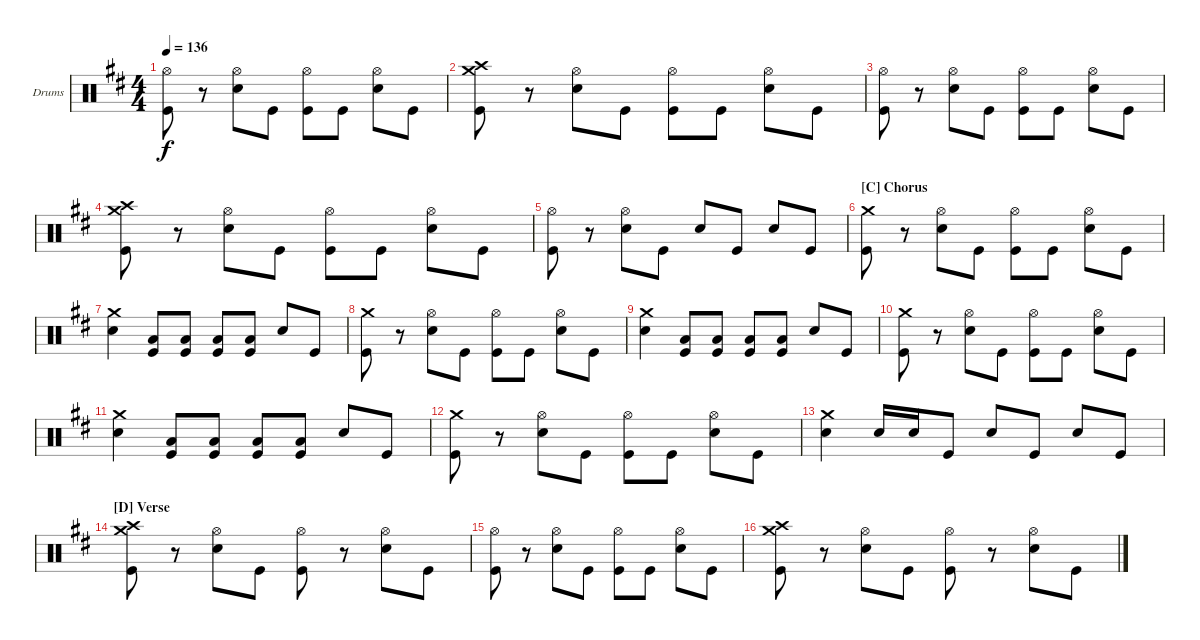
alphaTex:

\defaultSystemsLayout 4
\bracketExtendMode groupsimilarinstruments
\firstSystemTrackNameOrientation horizontal
\otherSystemsTrackNameOrientation horizontal
\track ("Drumkit" "Drums") {instrument percussion}
\staff {score}
\articulation defaults
\ts (4 4)
\tempo 136
\clef neutral
\scale
1.05044
\ks d
("Hi-Hat (open)" "Kick (hit)").8{dy f} r.8 ("Hi-Hat (open)" "Snare (hit) 2").8 "Kick (hit)".8 ("Hi-Hat (open)" "Kick (hit)").8 "Kick (hit)".8 ("Hi-Hat (open)" "Snare (hit) 2").8 "Kick (hit)".8 |
\scale
0.949559 ("Crash high (hit)" "Crash medium (hit)" "Kick (hit)").8 r.8 ("Hi-Hat (open)" "Snare (hit) 2").8 "Kick (hit)".8 ("Hi-Hat (open)" "Kick (hit)").8 "Kick (hit)".8 ("Hi-Hat (open)" "Snare (hit) 2").8 "Kick (hit)".8 |
\scale
1.05044 ("Hi-Hat (open)" "Kick (hit)").8 r.8 ("Hi-Hat (open)" "Snare (hit) 2").8 "Kick (hit)".8 ("Hi-Hat (open)" "Kick (hit)").8 "Kick (hit)".8 ("Hi-Hat (open)" "Snare (hit) 2").8 "Kick (hit)".8 |
\scale
0.949559 ("Crash high (hit)" "Crash medium (hit)" "Kick (hit)").8 r.8 ("Hi-Hat (open)" "Snare (hit) 2").8 "Kick (hit)".8 ("Hi-Hat (open)" "Kick (hit)").8 "Kick (hit)".8 ("Hi-Hat (open)" "Snare (hit) 2").8 "Kick (hit)".8 |
\scale
1.05044 ("Hi-Hat (open)" "Kick (hit)").8 r.8 ("Hi-Hat (open)" "Snare (hit) 2").8 "Kick (hit)".8 "Snare (hit) 2".8 "Kick (hit)".8 "Snare (hit) 2".8 "Kick (hit)".8 |
\section ("C" "Chorus")
\scale
0.949559 ("Crash medium (hit)" "Kick (hit)").8 r.8 ("Hi-Hat (open)" "Snare (hit) 2").8 "Kick (hit)".8 ("Hi-Hat (open)" "Kick (hit)").8 "Kick (hit)".8 ("Hi-Hat (open)" "Snare (hit) 2").8 "Kick (hit)".8 |
\scale
1.05044 ("Crash medium (hit)" "Snare (hit) 2").4 ("Low Tom (hit)" "Kick (hit)").8 ("Low Tom (hit)" "Kick (hit)").8 ("Low Tom (hit)" "Kick (hit)").8 ("Low Tom (hit)" "Kick (hit)").8 "Snare (hit) 2".8 "Kick (hit)".8 |
\scale
0.949559 ("Crash medium (hit)" "Kick (hit)").8 r.8 ("Hi-Hat (open)" "Snare (hit) 2").8 "Kick (hit)".8 ("Hi-Hat (open)" "Kick (hit)").8 "Kick (hit)".8 ("Hi-Hat (open)" "Snare (hit) 2").8 "Kick (hit)".8 |
\scale
1.05044 ("Crash medium (hit)" "Snare (hit) 2").4 ("Low Tom (hit)" "Kick (hit)").8 ("Low Tom (hit)" "Kick (hit)").8 ("Low Tom (hit)" "Kick (hit)").8 ("Low Tom (hit)" "Kick (hit)").8 "Snare (hit) 2".8 "Kick (hit)".8 |
\scale
0.949559 ("Crash medium (hit)" "Kick (hit)").8 r.8 ("Hi-Hat (open)" "Snare (hit) 2").8 "Kick (hit)".8 ("Hi-Hat (open)" "Kick (hit)").8 "Kick (hit)".8 ("Hi-Hat (open)" "Snare (hit) 2").8 "Kick (hit)".8 |
\scale
1.05044 ("Crash medium (hit)" "Snare (hit) 2").4 ("Low Tom (hit)" "Kick (hit)").8 ("Low Tom (hit)" "Kick (hit)").8 ("Low Tom (hit)" "Kick (hit)").8 ("Low Tom (hit)" "Kick (hit)").8 "Snare (hit) 2".8 "Kick (hit)".8 |
\scale
0.949559 ("Crash medium (hit)" "Kick (hit)").8 r.8 ("Hi-Hat (open)" "Snare (hit) 2").8 "Kick (hit)".8 ("Hi-Hat (open)" "Kick (hit)").8 "Kick (hit)".8 ("Hi-Hat (open)" "Snare (hit) 2").8 "Kick (hit)".8 |
\scale
1.05044 ("Crash medium (hit)" "Snare (hit) 2").4 "Snare (hit) 2".16 "Snare (hit) 2".16 "Kick (hit)".8 "Snare (hit) 2".8 "Kick (hit)".8 "Snare (hit) 2".8 "Kick (hit)".8 |
\section ("D" "Verse")
\scale
0.949559 ("Crash high (hit)" "Crash medium (hit)" "Kick (hit)").8 r.8 ("Hi-Hat (open)" "Snare (hit) 2").8 "Kick (hit)".8 ("Hi-Hat (open)" "Kick (hit)").8 r.8 ("Hi-Hat (open)" "Snare (hit) 2").8 "Kick (hit)".8 |
\scale
1.05044 ("Hi-Hat (open)" "Kick (hit)").8 r.8 ("Hi-Hat (open)" "Snare (hit) 2").8 "Kick (hit)".8 ("Hi-Hat (open)" "Kick (hit)").8 "Kick (hit)".8 ("Hi-Hat (open)" "Snare (hit) 2").8 "Kick (hit)".8 |
\scale
0.949559 ("Crash high (hit)" "Crash medium (hit)" "Kick (hit)").8 r.8 ("Hi-Hat (open)" "Snare (hit) 2").8 "Kick (hit)".8 ("Hi-Hat (open)" "Kick (hit)").8 r.8 ("Hi-Hat (open)" "Snare (hit) 2").8 "Kick (hit)".8
